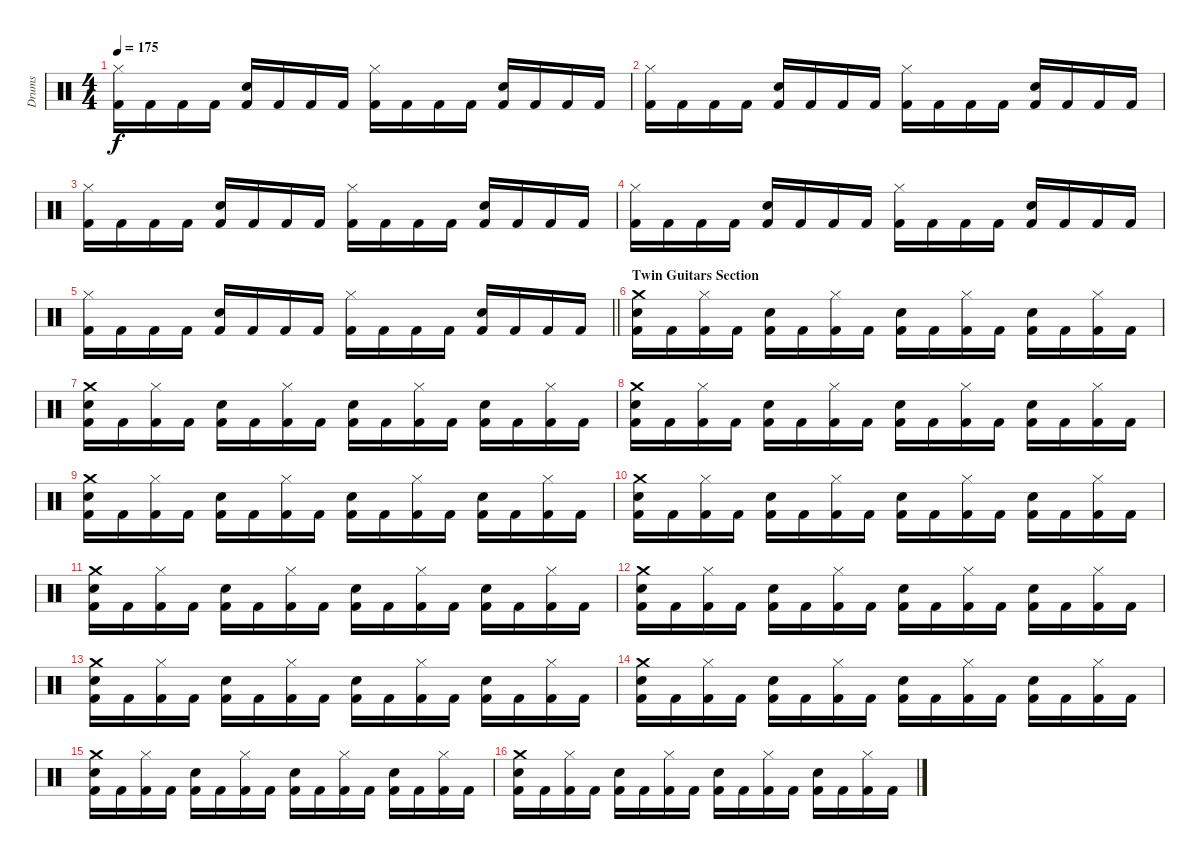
\track ("Drums" "Drums") {instrument percussion}
\staff {score}
\articulation defaults
\ts (4 4)
\tempo 175
\clef neutral
\ks c
("Kick (hit) 2" "Hi-Hat (closed)").16{dy f} "Kick (hit) 2".16 "Kick (hit) 2".16 "Kick (hit) 2".16 ("Kick (hit) 2" "Snare (hit) 2").16 "Kick (hit) 2".16 "Kick (hit) 2".16 "Kick (hit) 2".16 ("Kick (hit) 2" "Hi-Hat (closed)").16 "Kick (hit) 2".16 "Kick (hit) 2".16 "Kick (hit) 2".16 ("Kick (hit) 2" "Snare (hit) 2").16 "Kick (hit) 2".16 "Kick (hit) 2".16 "Kick (hit) 2".16 |
("Kick (hit) 2" "Hi-Hat (closed)").16 "Kick (hit) 2".16 "Kick (hit) 2".16 "Kick (hit) 2".16 ("Kick (hit) 2" "Snare (hit) 2").16 "Kick (hit) 2".16 "Kick (hit) 2".16 "Kick (hit) 2".16 ("Kick (hit) 2" "Hi-Hat (closed)").16 "Kick (hit) 2".16 "Kick (hit) 2".16 "Kick (hit) 2".16 ("Kick (hit) 2" "Snare (hit) 2").16 "Kick (hit) 2".16 "Kick (hit) 2".16 "Kick (hit) 2".16 |
("Kick (hit) 2" "Hi-Hat (closed)").16 "Kick (hit) 2".16 "Kick (hit) 2".16 "Kick (hit) 2".16 ("Kick (hit) 2" "Snare (hit) 2").16 "Kick (hit) 2".16 "Kick (hit) 2".16 "Kick (hit) 2".16 ("Kick (hit) 2" "Hi-Hat (closed)").16 "Kick (hit) 2".16 "Kick (hit) 2".16 "Kick (hit) 2".16 ("Kick (hit) 2" "Snare (hit) 2").16 "Kick (hit) 2".16 "Kick (hit) 2".16 "Kick (hit) 2".16 |
("Kick (hit) 2" "Hi-Hat (closed)").16 "Kick (hit) 2".16 "Kick (hit) 2".16 "Kick (hit) 2".16 ("Kick (hit) 2" "Snare (hit) 2").16 "Kick (hit) 2".16 "Kick (hit) 2".16 "Kick (hit) 2".16 ("Kick (hit) 2" "Hi-Hat (closed)").16 "Kick (hit) 2".16 "Kick (hit) 2".16 "Kick (hit) 2".16 ("Kick (hit) 2" "Snare (hit) 2").16 "Kick (hit) 2".16 "Kick (hit) 2".16 "Kick (hit) 2".16 |
\barLineRight lightlight
("Kick (hit) 2" "Hi-Hat (closed)").16 "Kick (hit) 2".16 "Kick (hit) 2".16 "Kick (hit) 2".16 ("Kick (hit) 2" "Snare (hit) 2").16 "Kick (hit) 2".16 "Kick (hit) 2".16 "Kick (hit) 2".16 ("Kick (hit) 2" "Hi-Hat (closed)").16 "Kick (hit) 2".16 "Kick (hit) 2".16 "Kick (hit) 2".16 ("Kick (hit) 2" "Snare (hit) 2").16 "Kick (hit) 2".16 "Kick (hit) 2".16 "Kick (hit) 2".16 |
\section ("" "Twin Guitars Section")
("Kick (hit) 2" "Snare (hit) 2" "Crash medium (hit)").16 "Kick (hit) 2".16 ("Kick (hit) 2" "Hi-Hat (closed)").16 "Kick (hit) 2".16 ("Kick (hit) 2" "Snare (hit) 2").16 "Kick (hit) 2".16 ("Kick (hit) 2" "Hi-Hat (closed)").16 "Kick (hit) 2".16 ("Kick (hit) 2" "Snare (hit) 2").16 "Kick (hit) 2".16 ("Kick (hit) 2" "Hi-Hat (closed)").16 "Kick (hit) 2".16 ("Kick (hit) 2" "Snare (hit) 2").16 "Kick (hit) 2".16 ("Kick (hit) 2" "Hi-Hat (closed)").16 "Kick (hit) 2".16 |
("Kick (hit) 2" "Snare (hit) 2" "Crash medium (hit)").16 "Kick (hit) 2".16 ("Kick (hit) 2" "Hi-Hat (closed)").16 "Kick (hit) 2".16 ("Kick (hit) 2" "Snare (hit) 2").16 "Kick (hit) 2".16 ("Kick (hit) 2" "Hi-Hat (closed)").16 "Kick (hit) 2".16 ("Kick (hit) 2" "Snare (hit) 2").16 "Kick (hit) 2".16 ("Kick (hit) 2" "Hi-Hat (closed)").16 "Kick (hit) 2".16 ("Kick (hit) 2" "Snare (hit) 2").16 "Kick (hit) 2".16 ("Kick (hit) 2" "Hi-Hat (closed)").16 "Kick (hit) 2".16 |
("Kick (hit) 2" "Snare (hit) 2" "Crash medium (hit)").16 "Kick (hit) 2".16 ("Kick (hit) 2" "Hi-Hat (closed)").16 "Kick (hit) 2".16 ("Kick (hit) 2" "Snare (hit) 2").16 "Kick (hit) 2".16 ("Kick (hit) 2" "Hi-Hat (closed)").16 "Kick (hit) 2".16 ("Kick (hit) 2" "Snare (hit) 2").16 "Kick (hit) 2".16 ("Kick (hit) 2" "Hi-Hat (closed)").16 "Kick (hit) 2".16 ("Kick (hit) 2" "Snare (hit) 2").16 "Kick (hit) 2".16 ("Kick (hit) 2" "Hi-Hat (closed)").16 "Kick (hit) 2".16 |
("Kick (hit) 2" "Snare (hit) 2" "Crash medium (hit)").16 "Kick (hit) 2".16 ("Kick (hit) 2" "Hi-Hat (closed)").16 "Kick (hit) 2".16 ("Kick (hit) 2" "Snare (hit) 2").16 "Kick (hit) 2".16 ("Kick (hit) 2" "Hi-Hat (closed)").16 "Kick (hit) 2".16 ("Kick (hit) 2" "Snare (hit) 2").16 "Kick (hit) 2".16 ("Kick (hit) 2" "Hi-Hat (closed)").16 "Kick (hit) 2".16 ("Kick (hit) 2" "Snare (hit) 2").16 "Kick (hit) 2".16 ("Kick (hit) 2" "Hi-Hat (closed)").16 "Kick (hit) 2".16 |
("Kick (hit) 2" "Snare (hit) 2" "Crash medium (hit)").16 "Kick (hit) 2".16 ("Kick (hit) 2" "Hi-Hat (closed)").16 "Kick (hit) 2".16 ("Kick (hit) 2" "Snare (hit) 2").16 "Kick (hit) 2".16 ("Kick (hit) 2" "Hi-Hat (closed)").16 "Kick (hit) 2".16 ("Kick (hit) 2" "Snare (hit) 2").16 "Kick (hit) 2".16 ("Kick (hit) 2" "Hi-Hat (closed)").16 "Kick (hit) 2".16 ("Kick (hit) 2" "Snare (hit) 2").16 "Kick (hit) 2".16 ("Kick (hit) 2" "Hi-Hat (closed)").16 "Kick (hit) 2".16 |
("Kick (hit) 2" "Snare (hit) 2" "Crash medium (hit)").16 "Kick (hit) 2".16 ("Kick (hit) 2" "Hi-Hat (closed)").16 "Kick (hit) 2".16 ("Kick (hit) 2" "Snare (hit) 2").16 "Kick (hit) 2".16 ("Kick (hit) 2" "Hi-Hat (closed)").16 "Kick (hit) 2".16 ("Kick (hit) 2" "Snare (hit) 2").16 "Kick (hit) 2".16 ("Kick (hit) 2" "Hi-Hat (closed)").16 "Kick (hit) 2".16 ("Kick (hit) 2" "Snare (hit) 2").16 "Kick (hit) 2".16 ("Kick (hit) 2" "Hi-Hat (closed)").16 "Kick (hit) 2".16 |
("Kick (hit) 2" "Snare (hit) 2" "Crash medium (hit)").16 "Kick (hit) 2".16 ("Kick (hit) 2" "Hi-Hat (closed)").16 "Kick (hit) 2".16 ("Kick (hit) 2" "Snare (hit) 2").16 "Kick (hit) 2".16 ("Kick (hit) 2" "Hi-Hat (closed)").16 "Kick (hit) 2".16 ("Kick (hit) 2" "Snare (hit) 2").16 "Kick (hit) 2".16 ("Kick (hit) 2" "Hi-Hat (closed)").16 "Kick (hit) 2".16 ("Kick (hit) 2" "Snare (hit) 2").16 "Kick (hit) 2".16 ("Kick (hit) 2" "Hi-Hat (closed)").16 "Kick (hit) 2".16 |
("Kick (hit) 2" "Snare (hit) 2" "Crash medium (hit)").16 "Kick (hit) 2".16 ("Kick (hit) 2" "Hi-Hat (closed)").16 "Kick (hit) 2".16 ("Kick (hit) 2" "Snare (hit) 2").16 "Kick (hit) 2".16 ("Kick (hit) 2" "Hi-Hat (closed)").16 "Kick (hit) 2".16 ("Kick (hit) 2" "Snare (hit) 2").16 "Kick (hit) 2".16 ("Kick (hit) 2" "Hi-Hat (closed)").16 "Kick (hit) 2".16 ("Kick (hit) 2" "Snare (hit) 2").16 "Kick (hit) 2".16 ("Kick (hit) 2" "Hi-Hat (closed)").16 "Kick (hit) 2".16 |
("Kick (hit) 2" "Snare (hit) 2" "Crash medium (hit)").16 "Kick (hit) 2".16 ("Kick (hit) 2" "Hi-Hat (closed)").16 "Kick (hit) 2".16 ("Kick (hit) 2" "Snare (hit) 2").16 "Kick (hit) 2".16 ("Kick (hit) 2" "Hi-Hat (closed)").16 "Kick (hit) 2".16 ("Kick (hit) 2" "Snare (hit) 2").16 "Kick (hit) 2".16 ("Kick (hit) 2" "Hi-Hat (closed)").16 "Kick (hit) 2".16 ("Kick (hit) 2" "Snare (hit) 2").16 "Kick (hit) 2".16 ("Kick (hit) 2" "Hi-Hat (closed)").16 "Kick (hit) 2".16 |
("Kick (hit) 2" "Snare (hit) 2" "Crash medium (hit)").16 "Kick (hit) 2".16 ("Kick (hit) 2" "Hi-Hat (closed)").16 "Kick (hit) 2".16 ("Kick (hit) 2" "Snare (hit) 2").16 "Kick (hit) 2".16 ("Kick (hit) 2" "Hi-Hat (closed)").16 "Kick (hit) 2".16 ("Kick (hit) 2" "Snare (hit) 2").16 "Kick (hit) 2".16 ("Kick (hit) 2" "Hi-Hat (closed)").16 "Kick (hit) 2".16 ("Kick (hit) 2" "Snare (hit) 2").16 "Kick (hit) 2".16 ("Kick (hit) 2" "Hi-Hat (closed)").16 "Kick (hit) 2".16 |
("Kick (hit) 2" "Snare (hit) 2" "Crash medium (hit)").16 "Kick (hit) 2".16 ("Kick (hit) 2" "Hi-Hat (closed)").16 "Kick (hit) 2".16 ("Kick (hit) 2" "Snare (hit) 2").16 "Kick (hit) 2".16 ("Kick (hit) 2" "Hi-Hat (closed)").16 "Kick (hit) 2".16 ("Kick (hit) 2" "Snare (hit) 2").16 "Kick (hit) 2".16 ("Kick (hit) 2" "Hi-Hat (closed)").16 "Kick (hit) 2".16 ("Kick (hit) 2" "Snare (hit) 2").16 "Kick (hit) 2".16 ("Kick (hit) 2" "Hi-Hat (closed)").16 "Kick (hit) 2".16
